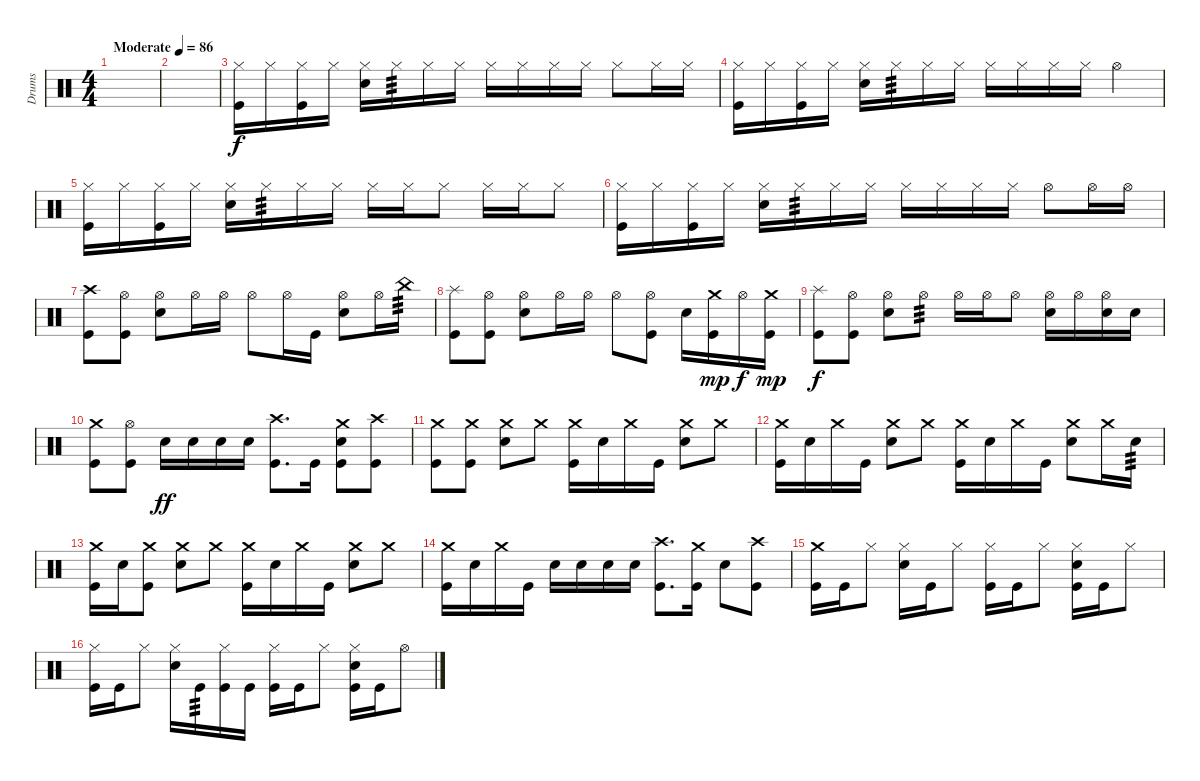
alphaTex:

\track ("Drums" "Drums") {instrument percussion}
\staff {score}
\articulation defaults
\ts (4 4)
\tempo (86 "Moderate")
\clef neutral
\ks c
|
|
("Hi-Hat (closed)" "Kick (hit)").16 "Hi-Hat (closed)".16 ("Hi-Hat (closed)" "Kick (hit)").16 "Hi-Hat (closed)".16 ("Hi-Hat (closed)" "Snare (hit) 2").16 "Hi-Hat (closed)".16{tp 3} "Hi-Hat (closed)".16 "Hi-Hat (closed)".16 "Hi-Hat (closed)".16 "Hi-Hat (closed)".16 "Hi-Hat (closed)".16 "Hi-Hat (closed)".16 "Hi-Hat (closed)".8 "Hi-Hat (closed)".16 "Hi-Hat (closed)".16 |
("Hi-Hat (closed)" "Kick (hit)").16 "Hi-Hat (closed)".16 ("Hi-Hat (closed)" "Kick (hit)").16 "Hi-Hat (closed)".16 ("Hi-Hat (closed)" "Snare (hit) 2").16 "Hi-Hat (closed)".16{tp 3} "Hi-Hat (closed)".16 "Hi-Hat (closed)".16 "Hi-Hat (closed)".16 "Hi-Hat (closed)".16 "Hi-Hat (closed)".16 "Hi-Hat (closed)".16 "Hi-Hat (open)".4 |
("Hi-Hat (closed)" "Kick (hit)").16 "Hi-Hat (closed)".16 ("Hi-Hat (closed)" "Kick (hit)").16 "Hi-Hat (closed)".16 ("Hi-Hat (closed)" "Snare (hit) 2").16 "Hi-Hat (closed)".16{tp 3} "Hi-Hat (closed)".16 "Hi-Hat (closed)".16 "Hi-Hat (closed)".16 "Hi-Hat (closed)".16 "Hi-Hat (closed)".8 "Hi-Hat (closed)".16 "Hi-Hat (closed)".16 "Hi-Hat (closed)".8 |
("Hi-Hat (closed)" "Kick (hit)").16 "Hi-Hat (closed)".16 ("Hi-Hat (closed)" "Kick (hit)").16 "Hi-Hat (closed)".16 ("Hi-Hat (closed)" "Snare (hit) 2").16 "Hi-Hat (closed)".16{tp 3} "Hi-Hat (closed)".16 "Hi-Hat (closed)".16 "Hi-Hat (closed)".16 "Hi-Hat (closed)".16 "Hi-Hat (closed)".16 "Hi-Hat (closed)".16 "Hi-Hat (open)".8 "Hi-Hat (open)".16 "Hi-Hat (open)".16 |
("Crash high (hit)" "Kick (hit)").8 ("Hi-Hat (open)" "Kick (hit)").8 ("Hi-Hat (open)" "Snare (hit) 2").8 "Hi-Hat (open)".16 "Hi-Hat (open)".16 "Hi-Hat (open)".8 "Hi-Hat (open)".16 "Kick (hit)".16 ("Hi-Hat (open)" "Snare (hit) 2").8 "Hi-Hat (open)".16 "China (hit)".16{tp 3} |
("Splash (hit)" "Kick (hit)").8 ("Hi-Hat (open)" "Kick (hit)").8 ("Hi-Hat (open)" "Snare (hit) 2").8 "Hi-Hat (open)".16 "Hi-Hat (open)".16 "Hi-Hat (open)".8 ("Hi-Hat (open)" "Kick (hit)").8 "Snare (hit) 2".16 ("Crash medium (hit)" "Kick (hit)").16{dy mp} "Hi-Hat (open)".16{dy f} ("Crash medium (hit)" "Kick (hit)").16{dy mp} |
("Splash (hit)" "Kick (hit)").8{dy f} ("Hi-Hat (open)" "Kick (hit)").8 ("Hi-Hat (open)" "Snare (hit) 2").8 "Hi-Hat (open)".8{tp 3} "Hi-Hat (open)".16 "Hi-Hat (open)".16 "Hi-Hat (open)".8 ("Hi-Hat (open)" "Snare (hit) 2").16 "Hi-Hat (open)".16 ("Hi-Hat (open)" "Snare (hit) 2").16 "Snare (hit) 2".16 |
("Crash medium (hit)" "Kick (hit)").8 ("Hi-Hat (open)" "Kick (hit)").8 "Snare (hit) 2".16{dy ff} "Snare (hit) 2".16 "Snare (hit) 2".16 "Snare (hit) 2".16 ("Crash high (hit)" "Kick (hit)").8{d} "Kick (hit)".16 ("Crash medium (hit)" "Snare (hit) 2" "Kick (hit)").8 ("Crash high (hit)" "Kick (hit)").8 |
("Crash medium (hit)" "Kick (hit)").8 ("Crash medium (hit)" "Kick (hit)").8 ("Crash medium (hit)" "Snare (hit) 2").8 "Crash medium (hit)".8 ("Crash medium (hit)" "Kick (hit)").16 "Snare (hit) 2".16 "Crash medium (hit)".16 "Kick (hit)".16 ("Crash medium (hit)" "Snare (hit) 2").8 "Crash medium (hit)".8 |
("Crash medium (hit)" "Kick (hit)").16 "Snare (hit) 2".16 "Crash medium (hit)".16 "Kick (hit)".16 ("Crash medium (hit)" "Snare (hit) 2").8 "Crash medium (hit)".8 ("Crash medium (hit)" "Kick (hit)").16 "Snare (hit) 2".16 "Crash medium (hit)".16 "Kick (hit)".16 ("Crash medium (hit)" "Snare (hit) 2").8 "Crash medium (hit)".16 "Snare (hit) 2".16{tp 3} |
("Crash medium (hit)" "Kick (hit)").16 "Snare (hit) 2".16 ("Crash medium (hit)" "Kick (hit)").8 ("Crash medium (hit)" "Snare (hit) 2").8 "Crash medium (hit)".8 ("Crash medium (hit)" "Kick (hit)").16 "Snare (hit) 2".16 "Crash medium (hit)".16 "Kick (hit)".16 ("Crash medium (hit)" "Snare (hit) 2").8 "Crash medium (hit)".8 |
("Crash medium (hit)" "Kick (hit)").16 "Snare (hit) 2".16 "Crash medium (hit)".16 "Kick (hit)".16 "Snare (hit) 2".16 "Snare (hit) 2".16 "Snare (hit) 2".16 "Snare (hit) 2".16 ("Crash high (hit)" "Kick (hit)").8{d} ("Crash medium (hit)" "Kick (hit)").16 "Snare (hit) 2".8 ("Crash high (hit)" "Kick (hit)").8 |
("Crash medium (hit)" "Kick (hit)").16 "Kick (hit)".16 "Hi-Hat (closed)".8 ("Hi-Hat (closed)" "Snare (hit) 2").16 "Kick (hit)".16 "Hi-Hat (closed)".8 ("Hi-Hat (closed)" "Kick (hit)").16 "Kick (hit)".16 "Hi-Hat (closed)".8 ("Hi-Hat (closed)" "Snare (hit) 2" "Kick (hit)").16 "Kick (hit)".16 "Hi-Hat (closed)".8 |
("Hi-Hat (closed)" "Kick (hit)").16 "Kick (hit)".16 "Hi-Hat (closed)".8 ("Hi-Hat (closed)" "Snare (hit) 2").16 "Kick (hit)".16{tp 3} ("Hi-Hat (closed)" "Kick (hit)").16 "Kick (hit)".16 ("Hi-Hat (closed)" "Kick (hit)").16 "Kick (hit)".16 "Hi-Hat (closed)".8 ("Hi-Hat (closed)" "Snare (hit) 2" "Kick (hit)").16 "Kick (hit)".16 "Hi-Hat (open)".8
